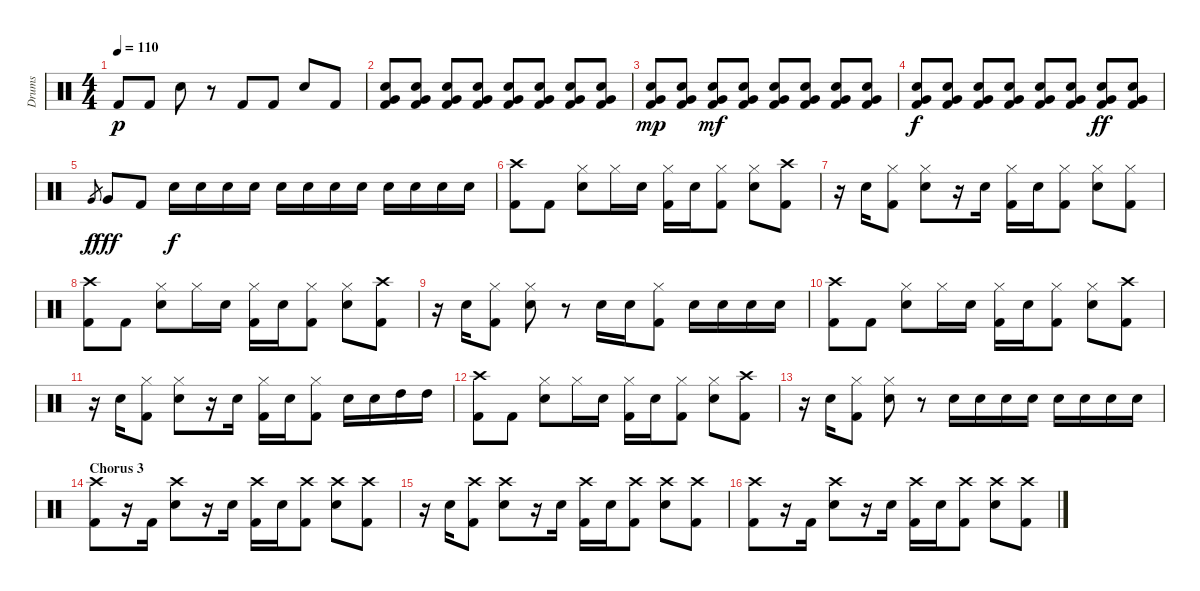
\track ("Drums" "Drums") {instrument percussion}
\staff {score}
\articulation defaults
\ts (4 4)
\tempo 110
\clef neutral
\ks c "Kick (hit) 2".8{dy p} "Kick (hit) 2".8 "Electric Snare (hit)".8
r.8 "Kick (hit) 2".8 "Kick (hit) 2".8 "Electric Snare (hit)".8 "Kick (hit) 2".8 |
("Electric Snare (hit)" "Very Low Tom (hit)" "Kick (hit) 2").8 ("Electric Snare (hit)" "Very Low Tom (hit)" "Kick (hit) 2").8 ("Electric Snare (hit)" "Very Low Tom (hit)" "Kick (hit) 2").8 ("Electric Snare (hit)" "Very Low Tom (hit)" "Kick (hit) 2").8 ("Electric Snare (hit)" "Very Low Tom (hit)" "Kick (hit) 2").8 ("Electric Snare (hit)" "Very Low Tom (hit)" "Kick (hit) 2").8 ("Electric Snare (hit)" "Very Low Tom (hit)" "Kick (hit) 2").8 ("Electric Snare (hit)" "Very Low Tom (hit)" "Kick (hit) 2").8 |
("Electric Snare (hit)" "Very Low Tom (hit)" "Kick (hit) 2").8{dy mp} ("Electric Snare (hit)" "Very Low Tom (hit)" "Kick (hit) 2").8 ("Electric Snare (hit)" "Very Low Tom (hit)" "Kick (hit) 2").8{dy mf} ("Electric Snare (hit)" "Very Low Tom (hit)" "Kick (hit) 2").8 ("Electric Snare (hit)" "Very Low Tom (hit)" "Kick (hit) 2").8 ("Electric Snare (hit)" "Very Low Tom (hit)" "Kick (hit) 2").8 ("Electric Snare (hit)" "Very Low Tom (hit)" "Kick (hit) 2").8 ("Electric Snare (hit)" "Very Low Tom (hit)" "Kick (hit) 2").8 |
("Electric Snare (hit)" "Very Low Tom (hit)" "Kick (hit) 2").8{dy f} ("Electric Snare (hit)" "Very Low Tom (hit)" "Kick (hit) 2").8 ("Electric Snare (hit)" "Very Low Tom (hit)" "Kick (hit) 2").8 ("Electric Snare (hit)" "Very Low Tom (hit)" "Kick (hit) 2").8 ("Electric Snare (hit)" "Very Low Tom (hit)" "Kick (hit) 2").8 ("Electric Snare (hit)" "Very Low Tom (hit)" "Kick (hit) 2").8 ("Electric Snare (hit)" "Very Low Tom (hit)" "Kick (hit) 2").8{dy ff} ("Electric Snare (hit)" "Very Low Tom (hit)" "Kick (hit) 2").8 |
"Very Low Tom (hit)".8{gr dy f} "Very Low Tom (hit)".8{dy fff} "Kick (hit) 2".8 "Electric Snare (hit)".16{dy f} "Electric Snare (hit)".16 "Electric Snare (hit)".16 "Electric Snare (hit)".16 "Electric Snare (hit)".16 "Electric Snare (hit)".16 "Electric Snare (hit)".16 "Electric Snare (hit)".16 "Electric Snare (hit)".16 "Electric Snare (hit)".16 "Electric Snare (hit)".16 "Electric Snare (hit)".16 |
("Crash high (hit)" "Kick (hit) 2").8 "Kick (hit) 2".8 ("Hi-Hat (closed)" "Electric Snare (hit)").8 "Hi-Hat (closed)".16 "Electric Snare (hit)".16 ("Hi-Hat (closed)" "Kick (hit) 2").16 "Electric Snare (hit)".16 ("Hi-Hat (closed)" "Kick (hit) 2").8 ("Hi-Hat (closed)" "Electric Snare (hit)").8 ("Crash high (hit)" "Kick (hit) 2").8 |
r.16 "Electric Snare (hit)".16 ("Hi-Hat (closed)" "Kick (hit) 2").8 ("Hi-Hat (closed)" "Electric Snare (hit)").8 r.16 "Electric Snare (hit)".16 ("Hi-Hat (closed)" "Kick (hit) 2").16 "Electric Snare (hit)".16 ("Hi-Hat (closed)" "Kick (hit) 2").8 ("Hi-Hat (closed)" "Electric Snare (hit)").8 ("Hi-Hat (closed)" "Kick (hit) 2").8 |
("Crash high (hit)" "Kick (hit) 2").8 "Kick (hit) 2".8 ("Hi-Hat (closed)" "Electric Snare (hit)").8 "Hi-Hat (closed)".16 "Electric Snare (hit)".16 ("Hi-Hat (closed)" "Kick (hit) 2").16 "Electric Snare (hit)".16 ("Hi-Hat (closed)" "Kick (hit) 2").8 ("Hi-Hat (closed)" "Electric Snare (hit)").8 ("Crash high (hit)" "Kick (hit) 2").8 |
r.16 "Electric Snare (hit)".16 ("Hi-Hat (closed)" "Kick (hit) 2").8 ("Hi-Hat (closed)" "Electric Snare (hit)").8 r.8 "Electric Snare (hit)".16 "Electric Snare (hit)".16 ("Hi-Hat (closed)" "Kick (hit) 2").8 "Electric Snare (hit)".16 "Electric Snare (hit)".16 "Electric Snare (hit)".16 "Electric Snare (hit)".16 |
("Crash high (hit)" "Kick (hit) 2").8 "Kick (hit) 2".8 ("Hi-Hat (closed)" "Electric Snare (hit)").8 "Hi-Hat (closed)".16 "Electric Snare (hit)".16 ("Hi-Hat (closed)" "Kick (hit) 2").16 "Electric Snare (hit)".16 ("Hi-Hat (closed)" "Kick (hit) 2").8 ("Hi-Hat (closed)" "Electric Snare (hit)").8 ("Crash high (hit)" "Kick (hit) 2").8 |
r.16 "Electric Snare (hit)".16 ("Hi-Hat (closed)" "Kick (hit) 2").8 ("Hi-Hat (closed)" "Electric Snare (hit)").8 r.16 "Electric Snare (hit)".16 ("Hi-Hat (closed)" "Kick (hit) 2").16 "Electric Snare (hit)".16 ("Hi-Hat (closed)" "Kick (hit) 2").8 "Electric Snare (hit)".16 "Electric Snare (hit)".16 "High Tom (hit)".16 "High Tom (hit)".16 |
("Crash high (hit)" "Kick (hit) 2").8 "Kick (hit) 2".8 ("Hi-Hat (closed)" "Electric Snare (hit)").8 "Hi-Hat (closed)".16 "Electric Snare (hit)".16 ("Hi-Hat (closed)" "Kick (hit) 2").16 "Electric Snare (hit)".16 ("Hi-Hat (closed)" "Kick (hit) 2").8 ("Hi-Hat (closed)" "Electric Snare (hit)").8 ("Crash high (hit)" "Kick (hit) 2").8 |
r.16 "Electric Snare (hit)".16 ("Hi-Hat (closed)" "Kick (hit) 2").8 ("Hi-Hat (closed)" "Electric Snare (hit)").8 r.8 "Electric Snare (hit)".16 "Electric Snare (hit)".16 "Electric Snare (hit)".16 "Electric Snare (hit)".16 "Electric Snare (hit)".16 "Electric Snare (hit)".16 "Electric Snare (hit)".16 "Electric Snare (hit)".16 |
\section ("" "Chorus 3")
("Crash high (hit)" "Kick (hit) 2").8 r.16 "Kick (hit) 2".16 ("Crash high (hit)" "Electric Snare (hit)").8 r.16 "Electric Snare (hit)".16 ("Crash high (hit)" "Kick (hit) 2").16 "Electric Snare (hit)".16 ("Crash high (hit)" "Kick (hit) 2").8 ("Crash high (hit)" "Electric Snare (hit)").8 ("Crash high (hit)" "Kick (hit) 2").8 |
r.16 "Electric Snare (hit)".16 ("Crash high (hit)" "Kick (hit) 2").8 ("Crash high (hit)" "Electric Snare (hit)").8 r.16 "Electric Snare (hit)".16 ("Crash high (hit)" "Kick (hit) 2").16 "Electric Snare (hit)".16 ("Crash high (hit)" "Kick (hit) 2").8 ("Crash high (hit)" "Electric Snare (hit)").8 ("Crash high (hit)" "Kick (hit) 2").8 |
("Crash high (hit)" "Kick (hit) 2").8 r.16 "Kick (hit) 2".16 ("Crash high (hit)" "Electric Snare (hit)").8 r.16 "Electric Snare (hit)".16 ("Crash high (hit)" "Kick (hit) 2").16 "Electric Snare (hit)".16 ("Crash high (hit)" "Kick (hit) 2").8 ("Crash high (hit)" "Electric Snare (hit)").8 ("Crash high (hit)" "Kick (hit) 2").8
